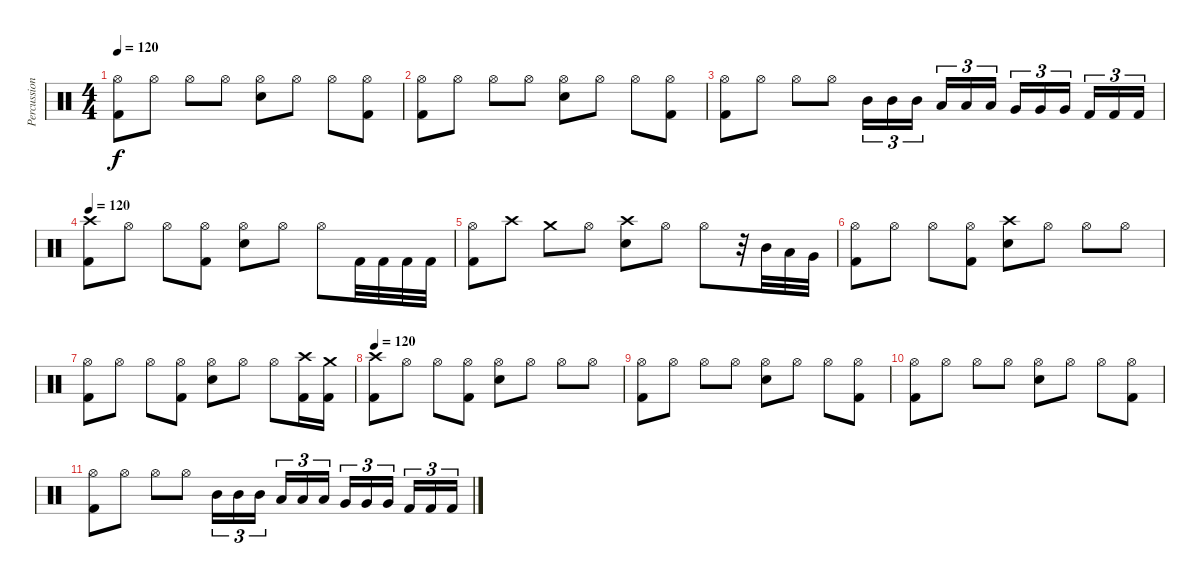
\track ("Percussion" "Percussion") {instrument percussion}
\staff {score}
\articulation defaults
\ts (4 4)
\tempo 120
\clef neutral
\ks c
("Hi-Hat (open)" "Kick (hit) 2").8{dy f} "Hi-Hat (open)".8 "Hi-Hat (open)".8 "Hi-Hat (open)".8 ("Hi-Hat (open)" "Snare (hit) 2").8 "Hi-Hat (open)".8 "Hi-Hat (open)".8 ("Hi-Hat (open)" "Kick (hit) 2").8 |
("Hi-Hat (open)" "Kick (hit) 2").8 "Hi-Hat (open)".8 "Hi-Hat (open)".8 "Hi-Hat (open)".8 ("Hi-Hat (open)" "Snare (hit) 2").8 "Hi-Hat (open)".8 "Hi-Hat (open)".8 ("Hi-Hat (open)" "Kick (hit) 2").8 |
("Hi-Hat (open)" "Kick (hit) 2").8 "Hi-Hat (open)".8 "Hi-Hat (open)".8 "Hi-Hat (open)".8 "Mid Tom (hit)".16{tu (3 2)} "Mid Tom (hit)".16{tu (3 2)} "Mid Tom (hit)".16{tu (3 2) beam splitsecondary} "Low Tom (hit)".16{tu (3 2)} "Low Tom (hit)".16{tu (3 2)} "Low Tom (hit)".16{tu (3 2)} "Very Low Tom (hit)".16{tu (3 2)} "Very Low Tom (hit)".16{tu (3 2)} "Very Low Tom (hit)".16{tu (3 2) beam splitsecondary} "Kick (hit) 2".16{tu (3 2)} "Kick (hit) 2".16{tu (3 2)} "Kick (hit) 2".16{tu (3 2)} |
\tempo 120
("Crash high (hit)" "Kick (hit) 2").8 "Hi-Hat (open)".8 "Hi-Hat (open)".8 ("Hi-Hat (open)" "Kick (hit) 2").8 ("Hi-Hat (open)" "Snare (hit) 2").8 "Hi-Hat (open)".8 "Hi-Hat (open)".8 "Kick (hit) 2".32 "Kick (hit) 2".32 "Kick (hit) 2".32 "Kick (hit) 2".32 |
("Hi-Hat (open)" "Kick (hit) 2").8 "Crash high (hit)".8 "Crash medium (hit)".8 "Hi-Hat (open)".8 ("Crash high (hit)" "Snare (hit) 2").8 "Hi-Hat (open)".8 "Hi-Hat (open)".8 r.32 "Mid Tom (hit)".32 "Low Tom (hit)".32 "Very Low Tom (hit)".32 |
("Hi-Hat (open)" "Kick (hit) 2").8 "Hi-Hat (open)".8 "Hi-Hat (open)".8 ("Hi-Hat (open)" "Kick (hit) 2").8 ("Crash high (hit)" "Snare (hit) 2").8 "Hi-Hat (open)".8 "Hi-Hat (open)".8 "Hi-Hat (open)".8 |
("Hi-Hat (open)" "Kick (hit) 2").8 "Hi-Hat (open)".8 "Hi-Hat (open)".8 ("Hi-Hat (open)" "Kick (hit) 2").8 ("Hi-Hat (open)" "Snare (hit) 2").8 "Hi-Hat (open)".8 "Hi-Hat (open)".8 ("Crash high (hit)" "Kick (hit) 2").16 ("Crash medium (hit)" "Kick (hit) 2").16 |
\tempo 120
("Crash high (hit)" "Kick (hit) 2").8 "Hi-Hat (open)".8 "Hi-Hat (open)".8 ("Hi-Hat (open)" "Kick (hit) 2").8 ("Hi-Hat (open)" "Snare (hit) 2").8 "Hi-Hat (open)".8 "Hi-Hat (open)".8 "Hi-Hat (open)".8 |
("Hi-Hat (open)" "Kick (hit) 2").8 "Hi-Hat (open)".8 "Hi-Hat (open)".8 "Hi-Hat (open)".8 ("Hi-Hat (open)" "Snare (hit) 2").8 "Hi-Hat (open)".8 "Hi-Hat (open)".8 ("Hi-Hat (open)" "Kick (hit) 2").8 |
("Hi-Hat (open)" "Kick (hit) 2").8 "Hi-Hat (open)".8 "Hi-Hat (open)".8 "Hi-Hat (open)".8 ("Hi-Hat (open)" "Snare (hit) 2").8 "Hi-Hat (open)".8 "Hi-Hat (open)".8 ("Hi-Hat (open)" "Kick (hit) 2").8 |
("Hi-Hat (open)" "Kick (hit) 2").8 "Hi-Hat (open)".8 "Hi-Hat (open)".8 "Hi-Hat (open)".8 "Mid Tom (hit)".16{tu (3 2)} "Mid Tom (hit)".16{tu (3 2)} "Mid Tom (hit)".16{tu (3 2) beam splitsecondary} "Low Tom (hit)".16{tu (3 2)} "Low Tom (hit)".16{tu (3 2)} "Low Tom (hit)".16{tu (3 2)} "Very Low Tom (hit)".16{tu (3 2)} "Very Low Tom (hit)".16{tu (3 2)} "Very Low Tom (hit)".16{tu (3 2) beam splitsecondary} "Kick (hit) 2".16{tu (3 2)} "Kick (hit) 2".16{tu (3 2)} "Kick (hit) 2".16{tu (3 2)}
